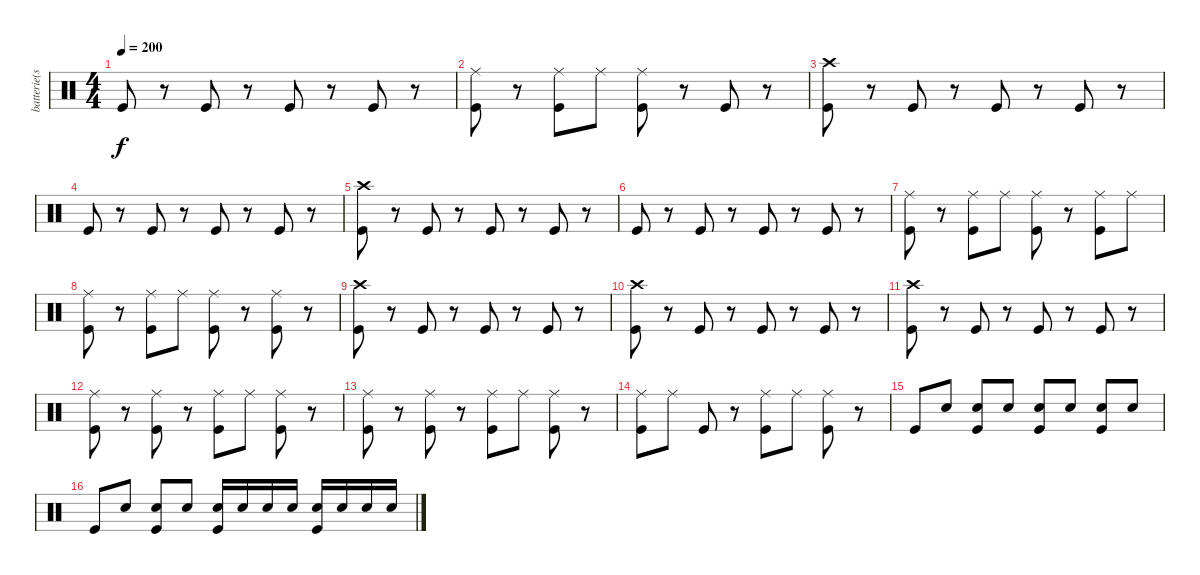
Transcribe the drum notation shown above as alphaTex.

\track ("batterie(scott)" "batterie(s") {instrument percussion}
\staff {score}
\articulation defaults
\ts (4 4)
\tempo 200
\clef neutral
\ks c "Kick (hit)".8{dy f}
r.8 "Kick (hit)".8 r.8 "Kick (hit)".8 r.8 "Kick (hit)".8 r.8 |
("Ride (middle)" "Kick (hit)").8 r.8 ("Ride (middle)" "Kick (hit)").8 "Ride (middle)".8 ("Ride (middle)" "Kick (hit)").8 r.8 "Kick (hit)".8 r.8 |
("Crash high (hit)" "Kick (hit)").8 r.8 "Kick (hit)".8 r.8 "Kick (hit)".8 r.8 "Kick (hit)".8 r.8 |
"Kick (hit)".8 r.8 "Kick (hit)".8 r.8 "Kick (hit)".8 r.8 "Kick (hit)".8 r.8 |
("Crash high (hit)" "Kick (hit)").8 r.8 "Kick (hit)".8 r.8 "Kick (hit)".8 r.8 "Kick (hit)".8 r.8 |
"Kick (hit)".8 r.8 "Kick (hit)".8 r.8 "Kick (hit)".8 r.8 "Kick (hit)".8 r.8 |
("Ride (middle)" "Kick (hit)").8 r.8 ("Ride (middle)" "Kick (hit)").8 "Ride (middle)".8 ("Ride (middle)" "Kick (hit)").8 r.8 ("Ride (middle)" "Kick (hit)").8 "Ride (middle)".8 |
("Ride (middle)" "Kick (hit)").8 r.8 ("Ride (middle)" "Kick (hit)").8 "Ride (middle)".8 ("Ride (middle)" "Kick (hit)").8 r.8 ("Ride (middle)" "Kick (hit)").8 r.8 |
("Crash high (hit)" "Kick (hit)").8 r.8 "Kick (hit)".8 r.8 "Kick (hit)".8 r.8 "Kick (hit)".8 r.8 |
("Crash high (hit)" "Kick (hit)").8 r.8 "Kick (hit)".8 r.8 "Kick (hit)".8 r.8 "Kick (hit)".8 r.8 |
("Crash high (hit)" "Kick (hit)").8 r.8 "Kick (hit)".8 r.8 "Kick (hit)".8 r.8 "Kick (hit)".8 r.8 |
("Ride (middle)" "Kick (hit)").8 r.8 ("Ride (middle)" "Kick (hit)").8 r.8 ("Ride (middle)" "Kick (hit)").8 "Ride (middle)".8 ("Ride (middle)" "Kick (hit)").8 r.8 |
("Ride (middle)" "Kick (hit)").8 r.8 ("Ride (middle)" "Kick (hit)").8 r.8 ("Ride (middle)" "Kick (hit)").8 "Ride (middle)".8 ("Ride (middle)" "Kick (hit)").8 r.8 |
("Ride (middle)" "Kick (hit)").8 "Ride (middle)".8 "Kick (hit)".8 r.8 ("Ride (middle)" "Kick (hit)").8 "Ride (middle)".8 ("Ride (middle)" "Kick (hit)").8 r.8 |
"Kick (hit)".8 "Snare (hit) 2".8 ("Snare (hit) 2" "Kick (hit)").8 "Snare (hit) 2".8 ("Snare (hit) 2" "Kick (hit)").8 "Snare (hit) 2".8 ("Snare (hit) 2" "Kick (hit)").8 "Snare (hit) 2".8 |
"Kick (hit)".8 "Snare (hit) 2".8 ("Snare (hit) 2" "Kick (hit)").8 "Snare (hit) 2".8 ("Snare (hit) 2" "Kick (hit)").16 "Snare (hit) 2".16 "Snare (hit) 2".16 "Snare (hit) 2".16 ("Snare (hit) 2" "Kick (hit)").16 "Snare (hit) 2".16 "Snare (hit) 2".16 "Snare (hit) 2".16
